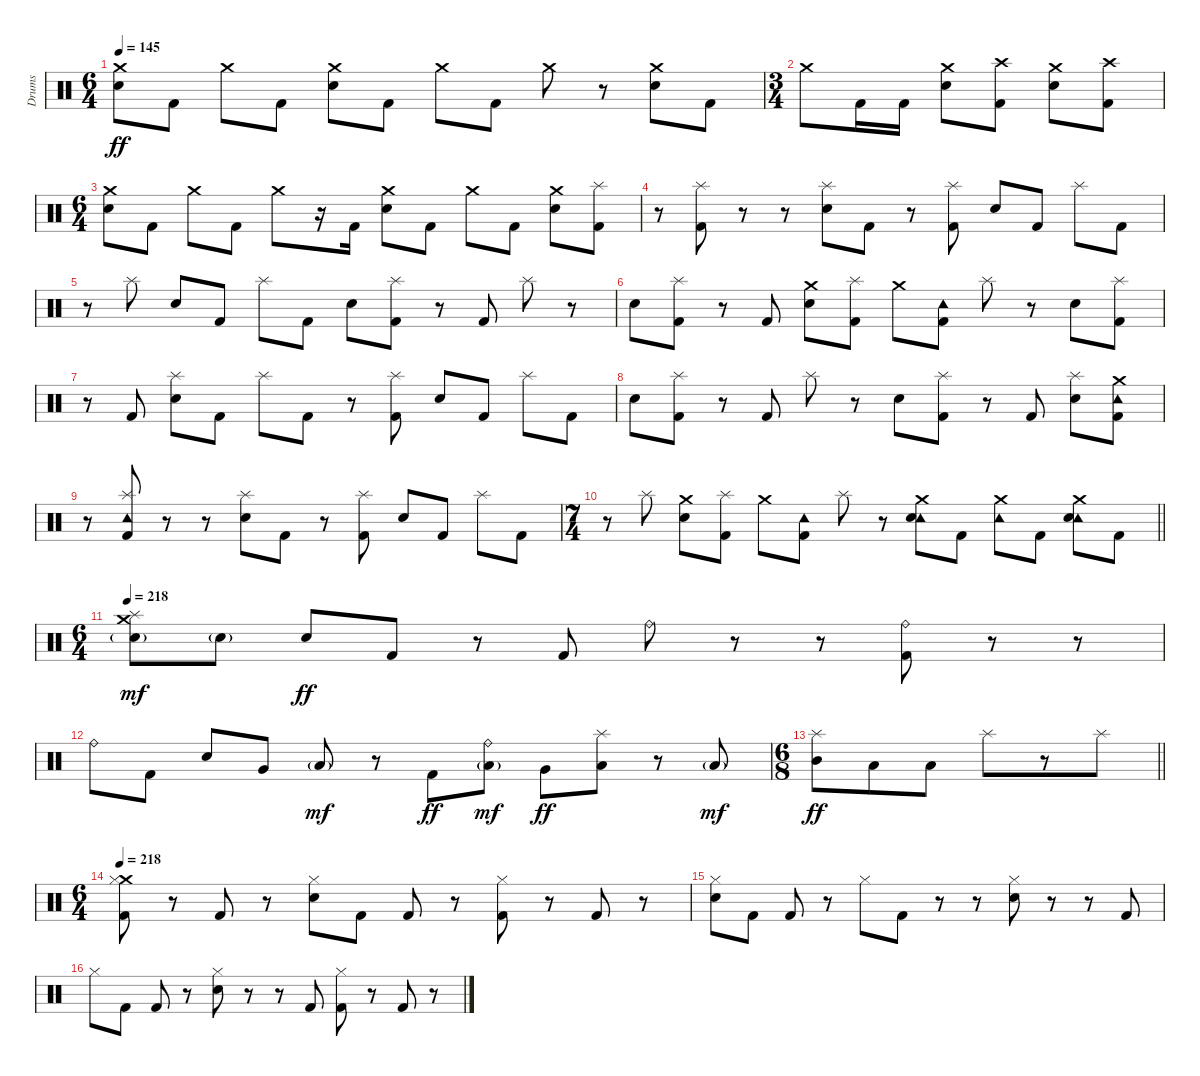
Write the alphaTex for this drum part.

\track ("Drums" "Drums") {instrument percussion}
\staff {score}
\articulation defaults
\ts (6 4)
\tempo 145
\clef neutral
\ks c
("Crash medium (hit)" "Electric Snare (hit)").8{dy ff} "Kick (hit) 2".8 "Crash medium (hit)".8 "Kick (hit) 2".8 ("Crash medium (hit)" "Electric Snare (hit)").8 "Kick (hit) 2".8 "Crash medium (hit)".8 "Kick (hit) 2".8 "Crash medium (hit)".8 r.8 ("Crash medium (hit)" "Electric Snare (hit)").8 "Kick (hit) 2".8 |
\ts (3 4)
"Crash medium (hit)".8 "Kick (hit) 2".16 "Kick (hit) 2".16 ("Crash medium (hit)" "Electric Snare (hit)").8 ("Crash high (hit)" "Kick (hit) 2").8 ("Crash medium (hit)" "Electric Snare (hit)").8 ("Crash high (hit)" "Kick (hit) 2").8 |
\ts (6 4)
("Crash medium (hit)" "Electric Snare (hit)").8 "Kick (hit) 2".8 "Crash medium (hit)".8 "Kick (hit) 2".8 "Crash medium (hit)".8 r.16 "Kick (hit) 2".16 ("Crash medium (hit)" "Electric Snare (hit)").8 "Kick (hit) 2".8 "Crash medium (hit)".8 "Kick (hit) 2".8 ("Crash medium (hit)" "Electric Snare (hit)").8 ("Splash (hit)" "Kick (hit) 2").8 |
r.8 ("Splash (hit)" "Kick (hit) 2").8 r.8 r.8 ("Splash (hit)" "Electric Snare (hit)").8 "Kick (hit) 2".8 r.8 ("Splash (hit)" "Kick (hit) 2").8 "Electric Snare (hit)".8 "Kick (hit) 2".8 "Splash (hit)".8 "Kick (hit) 2".8 |
r.8 "Splash (hit)".8 "Electric Snare (hit)".8 "Kick (hit) 2".8 "Splash (hit)".8 "Kick (hit) 2".8 "Electric Snare (hit)".8 ("Splash (hit)" "Kick (hit) 2").8 r.8 "Kick (hit) 2".8 "Splash (hit)".8 r.8 |
"Electric Snare (hit)".8 ("Splash (hit)" "Kick (hit) 2").8 r.8 "Kick (hit) 2".8 ("Crash medium (hit)" "Electric Snare (hit)").8 ("Splash (hit)" "Kick (hit) 2").8 "Crash medium (hit)".8 ("Tambourine (hit)" "Kick (hit) 2").8 "Splash (hit)".8 r.8 "Electric Snare (hit)".8 ("Splash (hit)" "Kick (hit) 2").8 |
r.8 "Kick (hit) 2".8 ("Splash (hit)" "Electric Snare (hit)").8 "Kick (hit) 2".8 "Splash (hit)".8 "Kick (hit) 2".8 r.8 ("Splash (hit)" "Kick (hit) 2").8 "Electric Snare (hit)".8 "Kick (hit) 2".8 "Splash (hit)".8 "Kick (hit) 2".8 |
"Electric Snare (hit)".8 ("Splash (hit)" "Kick (hit) 2").8 r.8 "Kick (hit) 2".8 "Splash (hit)".8 r.8 "Electric Snare (hit)".8 ("Splash (hit)" "Kick (hit) 2").8 r.8 "Kick (hit) 2".8 ("Splash (hit)" "Electric Snare (hit)").8 ("Crash medium (hit)" "Tambourine (hit)" "Kick (hit) 2").8 |
r.8 ("Tambourine (hit)" "Splash (hit)" "Kick (hit) 2").8 r.8 r.8 ("Splash (hit)" "Electric Snare (hit)").8 "Kick (hit) 2".8 r.8 ("Splash (hit)" "Kick (hit) 2").8 "Electric Snare (hit)".8 "Kick (hit) 2".8 "Splash (hit)".8 "Kick (hit) 2".8 |
\ts (7 4)
\barLineRight lightlight
r.8 "Splash (hit)".8 ("Crash medium (hit)" "Electric Snare (hit)").8 ("Splash (hit)" "Kick (hit) 2").8 "Crash medium (hit)".8 ("Tambourine (hit)" "Kick (hit) 2").8 "Splash (hit)".8 r.8 ("Crash medium (hit)" "Tambourine (hit)" "Electric Snare (hit)").8 "Kick (hit) 2".8 ("Crash medium (hit)" "Tambourine (hit)").8 "Kick (hit) 2".8 ("Crash medium (hit)" "Tambourine (hit)" "Electric Snare (hit)").8 "Kick (hit) 2".8 |
\ts (6 4)
\section ("" "")
\tempo 225
\tempo 218
("Crash medium (hit)" "Splash (hit)" "Electric Snare (hit)"{g}).8{dy mf} "Electric Snare (hit)"{g}.8 "Electric Snare (hit)".8{dy ff} "Kick (hit) 2".8 r.8 "Kick (hit) 2".8 "Ride (bell)".8 r.8 r.8 ("Ride (bell)" "Kick (hit) 2").8 r.8 r.8 |
"Ride (bell)".8 "Kick (hit) 2".8 "Electric Snare (hit)".8 "Very Low Tom (hit)".8 "Low Floor Tom (hit)"{g}.8{dy mf} r.8 "Kick (hit) 2".8{dy ff} ("Ride (bell)" "Low Tom (hit)"{g}).8{dy mf} "Very Low Tom (hit)".8{dy ff} ("Splash (hit)" "Low Tom (hit)").8 r.8 "Low Floor Tom (hit)"{g}.8{dy mf} |
\ts (6 8)
\barLineRight lightlight
("Splash (hit)" "Mid Tom (hit)").8{dy ff} "Low Tom (hit)".8 "Low Floor Tom (hit)".8 "Splash (hit)".8 r.8 "Splash (hit)".8 |
\ts (6 4)
\section ("" "")
\tempo 218
("Crash medium (hit)" "Hi-Hat (closed)" "Kick (hit) 2").8 r.8 "Kick (hit) 2".8 r.8 ("Hi-Hat (closed)" "Electric Snare (hit)").8 "Kick (hit) 2".8 "Kick (hit) 2".8 r.8 ("Hi-Hat (closed)" "Kick (hit) 2").8 r.8 "Kick (hit) 2".8 r.8 |
("Hi-Hat (closed)" "Electric Snare (hit)").8 "Kick (hit) 2".8 "Kick (hit) 2".8 r.8 "Hi-Hat (closed)".8 "Kick (hit) 2".8 r.8 r.8 ("Hi-Hat (closed)" "Electric Snare (hit)").8 r.8 r.8 "Kick (hit) 2".8 |
"Hi-Hat (closed)".8 "Kick (hit) 2".8 "Kick (hit) 2".8 r.8 ("Hi-Hat (closed)" "Electric Snare (hit)").8 r.8 r.8 "Kick (hit) 2".8 ("Hi-Hat (closed)" "Kick (hit) 2").8 r.8 "Kick (hit) 2".8 r.8
